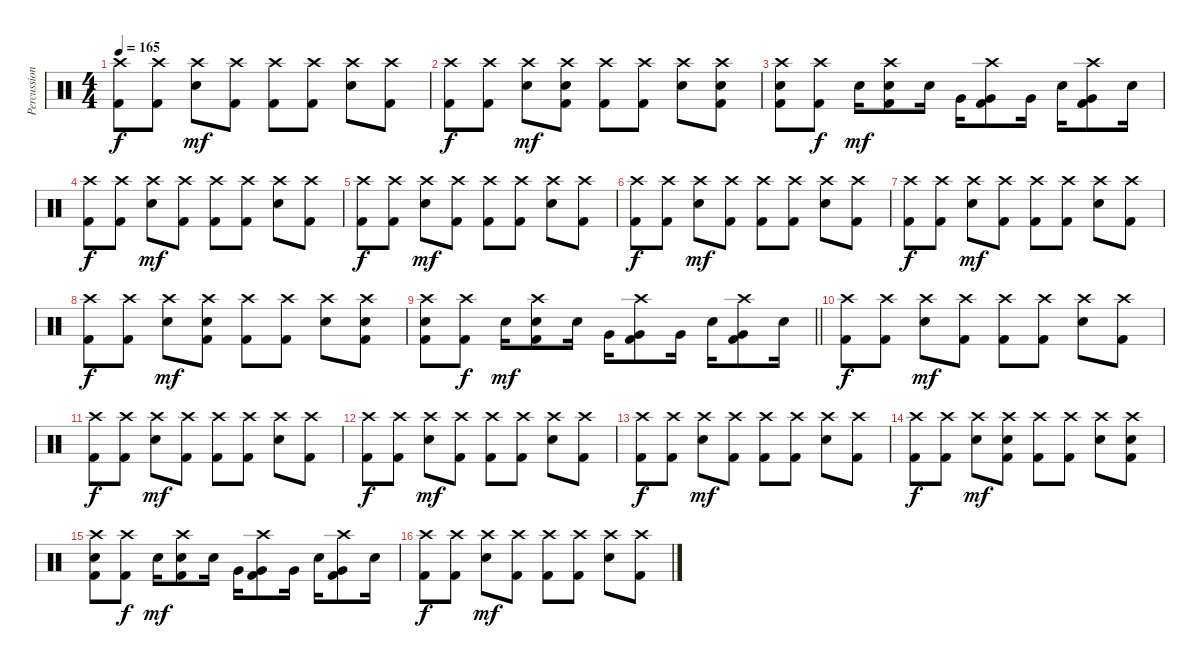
\track ("Percussion" "Percussion") {instrument percussion}
\staff {score}
\articulation defaults
\ts (4 4)
\tempo 165
\clef neutral
\ks c
("Crash high (hit)" "Kick (hit) 2").8{dy f} ("Crash high (hit)" "Kick (hit) 2").8 ("Crash high (hit)" "Snare (hit) 2").8{dy mf} ("Crash high (hit)" "Kick (hit) 2").8 ("Crash high (hit)" "Kick (hit) 2").8 ("Crash high (hit)" "Kick (hit) 2").8 ("Crash high (hit)" "Snare (hit) 2").8 ("Crash high (hit)" "Kick (hit) 2").8 |
("Crash high (hit)" "Kick (hit) 2").8{dy f} ("Crash high (hit)" "Kick (hit) 2").8 ("Crash high (hit)" "Snare (hit) 2").8{dy mf} ("Crash high (hit)" "Snare (hit) 2" "Kick (hit) 2").8 ("Crash high (hit)" "Kick (hit) 2").8 ("Crash high (hit)" "Kick (hit) 2").8 ("Crash high (hit)" "Snare (hit) 2").8 ("Crash high (hit)" "Snare (hit) 2" "Kick (hit) 2").8 |
("Crash high (hit)" "Snare (hit) 2" "Kick (hit) 2").8 ("Crash high (hit)" "Kick (hit) 2").8{dy f} "Snare (hit) 2".16{dy mf} ("Crash high (hit)" "Snare (hit) 2" "Kick (hit) 2").8 "Snare (hit) 2".16 "Very Low Tom (hit)".16 ("Crash high (hit)" "Very Low Tom (hit)" "Kick (hit) 2").8 "Very Low Tom (hit)".16 "Snare (hit) 2".16 ("Crash high (hit)" "Very Low Tom (hit)" "Kick (hit) 2").8 "Snare (hit) 2".16 |
("Crash high (hit)" "Kick (hit) 2").8{dy f} ("Crash high (hit)" "Kick (hit) 2").8 ("Crash high (hit)" "Snare (hit) 2").8{dy mf} ("Crash high (hit)" "Kick (hit) 2").8 ("Crash high (hit)" "Kick (hit) 2").8 ("Crash high (hit)" "Kick (hit) 2").8 ("Crash high (hit)" "Snare (hit) 2").8 ("Crash high (hit)" "Kick (hit) 2").8 |
("Crash high (hit)" "Kick (hit) 2").8{dy f} ("Crash high (hit)" "Kick (hit) 2").8 ("Crash high (hit)" "Snare (hit) 2").8{dy mf} ("Crash high (hit)" "Kick (hit) 2").8 ("Crash high (hit)" "Kick (hit) 2").8 ("Crash high (hit)" "Kick (hit) 2").8 ("Crash high (hit)" "Snare (hit) 2").8 ("Crash high (hit)" "Kick (hit) 2").8 |
("Crash high (hit)" "Kick (hit) 2").8{dy f} ("Crash high (hit)" "Kick (hit) 2").8 ("Crash high (hit)" "Snare (hit) 2").8{dy mf} ("Crash high (hit)" "Kick (hit) 2").8 ("Crash high (hit)" "Kick (hit) 2").8 ("Crash high (hit)" "Kick (hit) 2").8 ("Crash high (hit)" "Snare (hit) 2").8 ("Crash high (hit)" "Kick (hit) 2").8 |
("Crash high (hit)" "Kick (hit) 2").8{dy f} ("Crash high (hit)" "Kick (hit) 2").8 ("Crash high (hit)" "Snare (hit) 2").8{dy mf} ("Crash high (hit)" "Kick (hit) 2").8 ("Crash high (hit)" "Kick (hit) 2").8 ("Crash high (hit)" "Kick (hit) 2").8 ("Crash high (hit)" "Snare (hit) 2").8 ("Crash high (hit)" "Kick (hit) 2").8 |
("Crash high (hit)" "Kick (hit) 2").8{dy f} ("Crash high (hit)" "Kick (hit) 2").8 ("Crash high (hit)" "Snare (hit) 2").8{dy mf} ("Crash high (hit)" "Snare (hit) 2" "Kick (hit) 2").8 ("Crash high (hit)" "Kick (hit) 2").8 ("Crash high (hit)" "Kick (hit) 2").8 ("Crash high (hit)" "Snare (hit) 2").8 ("Crash high (hit)" "Snare (hit) 2" "Kick (hit) 2").8 |
\barLineRight lightlight
("Crash high (hit)" "Snare (hit) 2" "Kick (hit) 2").8 ("Crash high (hit)" "Kick (hit) 2").8{dy f} "Snare (hit) 2".16{dy mf} ("Crash high (hit)" "Snare (hit) 2" "Kick (hit) 2").8 "Snare (hit) 2".16 "Very Low Tom (hit)".16 ("Crash high (hit)" "Very Low Tom (hit)" "Kick (hit) 2").8 "Very Low Tom (hit)".16 "Snare (hit) 2".16 ("Crash high (hit)" "Very Low Tom (hit)" "Kick (hit) 2").8 "Snare (hit) 2".16 |
("Crash high (hit)" "Kick (hit) 2").8{dy f} ("Crash high (hit)" "Kick (hit) 2").8 ("Crash high (hit)" "Snare (hit) 2").8{dy mf} ("Crash high (hit)" "Kick (hit) 2").8 ("Crash high (hit)" "Kick (hit) 2").8 ("Crash high (hit)" "Kick (hit) 2").8 ("Crash high (hit)" "Snare (hit) 2").8 ("Crash high (hit)" "Kick (hit) 2").8 |
("Crash high (hit)" "Kick (hit) 2").8{dy f} ("Crash high (hit)" "Kick (hit) 2").8 ("Crash high (hit)" "Snare (hit) 2").8{dy mf} ("Crash high (hit)" "Kick (hit) 2").8 ("Crash high (hit)" "Kick (hit) 2").8 ("Crash high (hit)" "Kick (hit) 2").8 ("Crash high (hit)" "Snare (hit) 2").8 ("Crash high (hit)" "Kick (hit) 2").8 |
("Crash high (hit)" "Kick (hit) 2").8{dy f} ("Crash high (hit)" "Kick (hit) 2").8 ("Crash high (hit)" "Snare (hit) 2").8{dy mf} ("Crash high (hit)" "Kick (hit) 2").8 ("Crash high (hit)" "Kick (hit) 2").8 ("Crash high (hit)" "Kick (hit) 2").8 ("Crash high (hit)" "Snare (hit) 2").8 ("Crash high (hit)" "Kick (hit) 2").8 |
("Crash high (hit)" "Kick (hit) 2").8{dy f} ("Crash high (hit)" "Kick (hit) 2").8 ("Crash high (hit)" "Snare (hit) 2").8{dy mf} ("Crash high (hit)" "Kick (hit) 2").8 ("Crash high (hit)" "Kick (hit) 2").8 ("Crash high (hit)" "Kick (hit) 2").8 ("Crash high (hit)" "Snare (hit) 2").8 ("Crash high (hit)" "Kick (hit) 2").8 |
("Crash high (hit)" "Kick (hit) 2").8{dy f} ("Crash high (hit)" "Kick (hit) 2").8 ("Crash high (hit)" "Snare (hit) 2").8{dy mf} ("Crash high (hit)" "Snare (hit) 2" "Kick (hit) 2").8 ("Crash high (hit)" "Kick (hit) 2").8 ("Crash high (hit)" "Kick (hit) 2").8 ("Crash high (hit)" "Snare (hit) 2").8 ("Crash high (hit)" "Snare (hit) 2" "Kick (hit) 2").8 |
("Crash high (hit)" "Snare (hit) 2" "Kick (hit) 2").8 ("Crash high (hit)" "Kick (hit) 2").8{dy f} "Snare (hit) 2".16{dy mf} ("Crash high (hit)" "Snare (hit) 2" "Kick (hit) 2").8 "Snare (hit) 2".16 "Very Low Tom (hit)".16 ("Crash high (hit)" "Very Low Tom (hit)" "Kick (hit) 2").8 "Very Low Tom (hit)".16 "Snare (hit) 2".16 ("Crash high (hit)" "Very Low Tom (hit)" "Kick (hit) 2").8 "Snare (hit) 2".16 |
("Crash high (hit)" "Kick (hit) 2").8{dy f} ("Crash high (hit)" "Kick (hit) 2").8 ("Crash high (hit)" "Snare (hit) 2").8{dy mf} ("Crash high (hit)" "Kick (hit) 2").8 ("Crash high (hit)" "Kick (hit) 2").8 ("Crash high (hit)" "Kick (hit) 2").8 ("Crash high (hit)" "Snare (hit) 2").8 ("Crash high (hit)" "Kick (hit) 2").8
